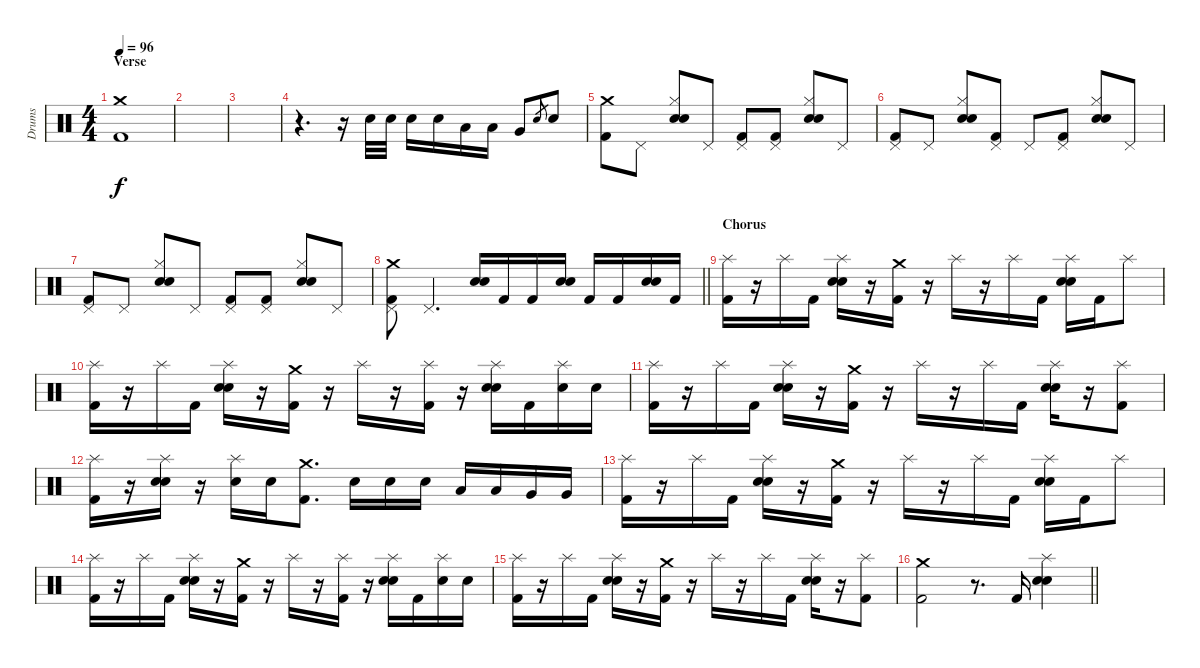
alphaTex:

\track ("Drums" "Drums") {instrument percussion}
\staff {score}
\articulation defaults
\ts (4 4)
\section ("" "Verse")
\tempo 96
\clef neutral
\ks c
("Crash medium (hit)" "Kick (hit) 2").1{dy f} |
|
|
r.4{d} r.16 "Electric Snare (hit)".32 "Electric Snare (hit)".32 "Electric Snare (hit)".16 "Electric Snare (hit)".16 "Low Tom (hit)".16 "Low Tom (hit)".16 "Very Low Tom (hit)".8 "Electric Snare (hit)".8{gr} "Electric Snare (hit)".8 |
("Crash medium (hit)" "Kick (hit) 2").8 "Pedal Hi-Hat (hit)".8 ("Hi-Hat (closed)" "Electric Snare (hit)" "Snare (hit) 2").8 "Pedal Hi-Hat (hit)".8 ("Pedal Hi-Hat (hit)" "Kick (hit) 2").8 ("Pedal Hi-Hat (hit)" "Kick (hit) 2").8 ("Hi-Hat (closed)" "Electric Snare (hit)" "Snare (hit) 2").8 "Pedal Hi-Hat (hit)".8 |
("Pedal Hi-Hat (hit)" "Kick (hit) 2").8 "Pedal Hi-Hat (hit)".8 ("Hi-Hat (closed)" "Electric Snare (hit)" "Snare (hit) 2").8 ("Pedal Hi-Hat (hit)" "Kick (hit) 2").8 "Pedal Hi-Hat (hit)".8 ("Pedal Hi-Hat (hit)" "Kick (hit) 2").8 ("Hi-Hat (closed)" "Electric Snare (hit)" "Snare (hit) 2").8 "Pedal Hi-Hat (hit)".8 |
("Pedal Hi-Hat (hit)" "Kick (hit) 2").8 "Pedal Hi-Hat (hit)".8 ("Hi-Hat (closed)" "Electric Snare (hit)" "Snare (hit) 2").8 "Pedal Hi-Hat (hit)".8 ("Pedal Hi-Hat (hit)" "Kick (hit) 2").8 ("Pedal Hi-Hat (hit)" "Kick (hit) 2").8 ("Hi-Hat (closed)" "Electric Snare (hit)" "Snare (hit) 2").8 "Pedal Hi-Hat (hit)".8 |
\barLineRight lightlight
("Crash medium (hit)" "Pedal Hi-Hat (hit)" "Kick (hit) 2").8 "Pedal Hi-Hat (hit)".4{d} ("Electric Snare (hit)" "Snare (hit) 2").16 "Kick (hit) 2".16 "Kick (hit) 2".16 ("Electric Snare (hit)" "Snare (hit) 2").16 "Kick (hit) 2".16 "Kick (hit) 2".16 ("Electric Snare (hit)" "Snare (hit) 2").16 "Kick (hit) 2".16 |
\section ("" "Chorus")
("Splash (hit)" "Kick (hit) 2").16 r.16 "Splash (hit)".16 "Kick (hit) 2".16 ("Splash (hit)" "Electric Snare (hit)" "Snare (hit) 2").16 r.16 ("Crash medium (hit)" "Kick (hit) 2").16 r.16 "Splash (hit)".16 r.16 "Splash (hit)".16 "Kick (hit) 2".16 ("Splash (hit)" "Electric Snare (hit)" "Snare (hit) 2").16 "Kick (hit) 2".16 "Splash (hit)".8 |
("Splash (hit)" "Kick (hit) 2").16 r.16 "Splash (hit)".16 "Kick (hit) 2".16 ("Splash (hit)" "Electric Snare (hit)" "Snare (hit) 2").16 r.16 ("Crash medium (hit)" "Kick (hit) 2").16 r.16 "Splash (hit)".16 r.16 ("Splash (hit)" "Kick (hit) 2").16 r.16 ("Splash (hit)" "Electric Snare (hit)" "Snare (hit) 2").16 "Kick (hit) 2".16 ("Splash (hit)" "Electric Snare (hit)").16 "Electric Snare (hit)".16 |
("Splash (hit)" "Kick (hit) 2").16 r.16 "Splash (hit)".16 "Kick (hit) 2".16 ("Splash (hit)" "Electric Snare (hit)" "Snare (hit) 2").16 r.16 ("Crash medium (hit)" "Kick (hit) 2").16 r.16 "Splash (hit)".16 r.16 "Splash (hit)".16 "Kick (hit) 2".16 ("Splash (hit)" "Electric Snare (hit)" "Snare (hit) 2").16 r.16 ("Splash (hit)" "Kick (hit) 2").8 |
("Splash (hit)" "Kick (hit) 2").16 r.16 ("Splash (hit)" "Electric Snare (hit)" "Snare (hit) 2").16 r.16 ("Splash (hit)" "Electric Snare (hit)").16 "Electric Snare (hit)".16 ("Crash medium (hit)" "Kick (hit) 2").8{d} "Electric Snare (hit)".16 "Electric Snare (hit)".16 "Electric Snare (hit)".16 "Low Tom (hit)".16 "Low Tom (hit)".16 "Very Low Tom (hit)".16 "Very Low Tom (hit)".16 |
("Splash (hit)" "Kick (hit) 2").16 r.16 "Splash (hit)".16 "Kick (hit) 2".16 ("Splash (hit)" "Electric Snare (hit)" "Snare (hit) 2").16 r.16 ("Crash medium (hit)" "Kick (hit) 2").16 r.16 "Splash (hit)".16 r.16 "Splash (hit)".16 "Kick (hit) 2".16 ("Splash (hit)" "Electric Snare (hit)" "Snare (hit) 2").16 "Kick (hit) 2".16 "Splash (hit)".8 |
("Splash (hit)" "Kick (hit) 2").16 r.16 "Splash (hit)".16 "Kick (hit) 2".16 ("Splash (hit)" "Electric Snare (hit)" "Snare (hit) 2").16 r.16 ("Crash medium (hit)" "Kick (hit) 2").16 r.16 "Splash (hit)".16 r.16 ("Splash (hit)" "Kick (hit) 2").16 r.16 ("Splash (hit)" "Electric Snare (hit)" "Snare (hit) 2").16 "Kick (hit) 2".16 ("Splash (hit)" "Electric Snare (hit)").16 "Electric Snare (hit)".16 |
("Splash (hit)" "Kick (hit) 2").16 r.16 "Splash (hit)".16 "Kick (hit) 2".16 ("Splash (hit)" "Electric Snare (hit)" "Snare (hit) 2").16 r.16 ("Crash medium (hit)" "Kick (hit) 2").16 r.16 "Splash (hit)".16 r.16 "Splash (hit)".16 "Kick (hit) 2".16 ("Splash (hit)" "Electric Snare (hit)" "Snare (hit) 2").16 r.16 ("Splash (hit)" "Kick (hit) 2").8 |
\barLineRight lightlight
("Crash medium (hit)" "Kick (hit) 2").2 r.8{d} "Kick (hit) 2".16 ("Splash (hit)" "Electric Snare (hit)" "Snare (hit) 2").4
